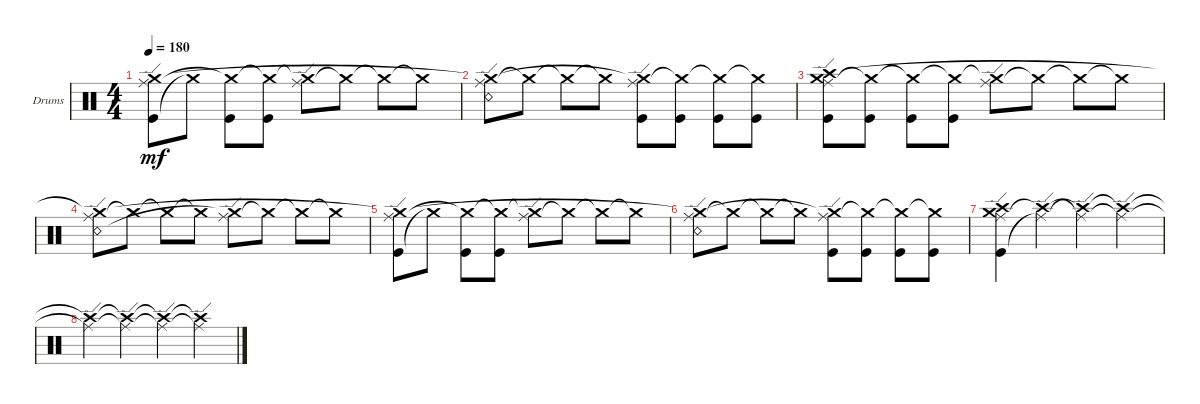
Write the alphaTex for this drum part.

\defaultSystemsLayout 4
\bracketExtendMode groupsimilarinstruments
\firstSystemTrackNameOrientation horizontal
\otherSystemsTrackNameOrientation horizontal
\track ("Drumkit" "Drums") {instrument percussion}
\staff {score}
\articulation defaults
\ts (4 4)
\tempo 180
\clef neutral
\ks c
("Kick (hit)" "Ride (edge)" "Crash medium (hit)"{t}).8{dy mf} "Crash medium (hit)"{t}.8 ("Kick (hit)" "Crash medium (hit)"{t}).8 ("Kick (hit)" "Crash medium (hit)"{t}).8 ("Ride (edge)" "Crash medium (hit)"{t}).8 "Crash medium (hit)"{t}.8 "Crash medium (hit)"{t}.8 "Crash medium (hit)"{t}.8 |
("Ride (edge)" "Snare (rim shot)" "Crash medium (hit)"{t}).8 "Crash medium (hit)"{t}.8 "Crash medium (hit)"{t}.8 "Crash medium (hit)"{t}.8 ("Kick (hit)" "Ride (edge)" "Crash medium (hit)"{t}).8 ("Kick (hit)" "Crash medium (hit)"{t}).8 ("Kick (hit)" "Crash medium (hit)"{t}).8 ("Kick (hit)" "Crash medium (hit)"{t}).8 |
("Kick (hit)" "Ride (edge)" "Crash high (hit)" "Crash medium (hit)").8 ("Kick (hit)" "Crash medium (hit)"{t}).8 ("Kick (hit)" "Crash medium (hit)"{t}).8 ("Kick (hit)" "Crash medium (hit)"{t}).8 ("Ride (edge)" "Crash medium (hit)"{t}).8 "Crash medium (hit)"{t}.8 "Crash medium (hit)"{t}.8 "Crash medium (hit)"{t}.8 |
("Ride (edge)" "Snare (rim shot)" "Crash medium (hit)"{t}).8 "Crash medium (hit)"{t}.8 "Crash medium (hit)"{t}.8 "Crash medium (hit)"{t}.8 ("Ride (edge)" "Crash medium (hit)"{t}).8 "Crash medium (hit)"{t}.8 "Crash medium (hit)"{t}.8 "Crash medium (hit)"{t}.8 |
("Kick (hit)" "Ride (edge)" "Crash medium (hit)"{t}).8 "Crash medium (hit)"{t}.8 ("Kick (hit)" "Crash medium (hit)"{t}).8 ("Kick (hit)" "Crash medium (hit)"{t}).8 ("Ride (edge)" "Crash medium (hit)"{t}).8 "Crash medium (hit)"{t}.8 "Crash medium (hit)"{t}.8 "Crash medium (hit)"{t}.8 |
("Ride (edge)" "Snare (rim shot)" "Crash medium (hit)"{t}).8 "Crash medium (hit)"{t}.8 "Crash medium (hit)"{t}.8 "Crash medium (hit)"{t}.8 ("Kick (hit)" "Ride (edge)" "Crash medium (hit)"{t}).8 ("Kick (hit)" "Crash medium (hit)"{t}).8 ("Kick (hit)" "Crash medium (hit)"{t}).8 ("Kick (hit)" "Crash medium (hit)"{t}).8 |
("Kick (hit)" "Ride (edge)" "Crash high (hit)" "Crash medium (hit)").4 ("Ride (edge)"{t} "Crash high (hit)"{t}).4 ("Crash high (hit)"{t} "Ride (edge)"{t}).4 ("Crash high (hit)"{t} "Ride (edge)"{t}).4 |
("Crash high (hit)"{t} "Ride (edge)"{t}).4 ("Crash high (hit)"{t} "Ride (edge)"{t}).4 ("Crash high (hit)"{t} "Ride (edge)"{t}).4 ("Crash high (hit)"{t} "Ride (edge)"{t}).4
